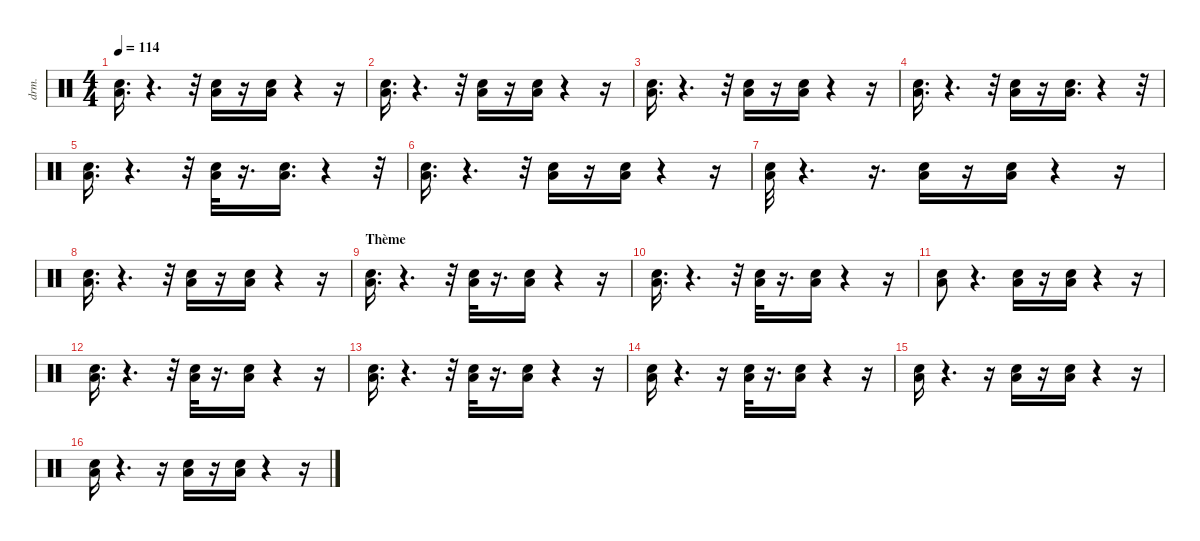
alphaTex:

\defaultSystemsLayout 4
\hideDynamics
\bracketExtendMode nobrackets
\otherSystemsTrackNameOrientation horizontal
\track ("Taiko drum" "drm.") {instrument percussion}
\staff {score}
\articulation defaults
\ts (4 4)
\tempo 114
\clef neutral
\ks c
("Low Floor Tom (hit)" "Snare (hit) 2").16{d dy fff} r.4{d} r.32 ("Low Floor Tom (hit)" "Snare (hit) 2").16{dy ff} r.16 ("Low Floor Tom (hit)" "Snare (hit) 2").16{dy fff} r.4 r.16 |
("Low Floor Tom (hit)" "Snare (hit) 2").16{d} r.4{d} r.32 ("Low Floor Tom (hit)" "Snare (hit) 2").16 r.16 ("Low Floor Tom (hit)" "Snare (hit) 2").16 r.4 r.16 |
("Low Floor Tom (hit)" "Snare (hit) 2").16{d} r.4{d} r.32 ("Low Floor Tom (hit)" "Snare (hit) 2").16 r.16 ("Low Floor Tom (hit)" "Snare (hit) 2").16 r.4 r.16 |
("Low Floor Tom (hit)" "Snare (hit) 2").16{d} r.4{d} r.32 ("Low Floor Tom (hit)" "Snare (hit) 2").16 r.16 ("Low Floor Tom (hit)" "Snare (hit) 2").16{d} r.4 r.32 |
("Low Floor Tom (hit)" "Snare (hit) 2").16{d} r.4{d} r.32 ("Snare (hit) 2" "Low Floor Tom (hit)").32{dy ff} r.16{d} ("Low Floor Tom (hit)" "Snare (hit) 2").16{d dy fff} r.4 r.32 |
("Snare (hit) 2" "Low Floor Tom (hit)").16{d} r.4{d} r.32 ("Snare (hit) 2" "Low Floor Tom (hit)").16{dy ff} r.16 ("Snare (hit) 2" "Low Floor Tom (hit)").16{dy fff} r.4 r.16 |
("Snare (hit) 2" "Low Floor Tom (hit)").32 r.4{d} r.16{d} ("Low Floor Tom (hit)" "Snare (hit) 2").16 r.16 ("Low Floor Tom (hit)" "Snare (hit) 2").16 r.4 r.16 |
("Low Floor Tom (hit)" "Snare (hit) 2").16{d} r.4{d} r.32 ("Low Floor Tom (hit)" "Snare (hit) 2").16 r.16 ("Low Floor Tom (hit)" "Snare (hit) 2").16 r.4 r.16 |
\section ("" "Thème")
("Low Floor Tom (hit)" "Snare (hit) 2").16{d} r.4{d} r.32 ("Snare (hit) 2" "Low Floor Tom (hit)").32 r.16{d} ("Low Floor Tom (hit)" "Snare (hit) 2").16 r.4 r.16 |
("Low Floor Tom (hit)" "Snare (hit) 2").16{d} r.4{d} r.32 ("Low Floor Tom (hit)" "Snare (hit) 2").32 r.16{d} ("Low Floor Tom (hit)" "Snare (hit) 2").16 r.4 r.16 |
("Low Floor Tom (hit)" "Snare (hit) 2").8 r.4{d} ("Low Floor Tom (hit)" "Snare (hit) 2").16 r.16 ("Low Floor Tom (hit)" "Snare (hit) 2").16 r.4 r.16 |
("Low Floor Tom (hit)" "Snare (hit) 2").16{d} r.4{d} r.32 ("Low Floor Tom (hit)" "Snare (hit) 2").32 r.16{d} ("Low Floor Tom (hit)" "Snare (hit) 2").16 r.4 r.16 |
("Low Floor Tom (hit)" "Snare (hit) 2").16{d} r.4{d} r.32 ("Low Floor Tom (hit)" "Snare (hit) 2").32 r.16{d} ("Low Floor Tom (hit)" "Snare (hit) 2").16 r.4 r.16 |
("Snare (hit) 2" "Low Floor Tom (hit)").16 r.4{d} r.16 ("Low Floor Tom (hit)" "Snare (hit) 2").32 r.16{d} ("Low Floor Tom (hit)" "Snare (hit) 2").16 r.4 r.16 |
("Low Floor Tom (hit)" "Snare (hit) 2").16 r.4{d} r.16 ("Low Floor Tom (hit)" "Snare (hit) 2").16 r.16 ("Low Floor Tom (hit)" "Snare (hit) 2").16 r.4 r.16 |
("Low Floor Tom (hit)" "Snare (hit) 2").16 r.4{d} r.16 ("Low Floor Tom (hit)" "Snare (hit) 2").16 r.16 ("Low Floor Tom (hit)" "Snare (hit) 2").16 r.4 r.16
